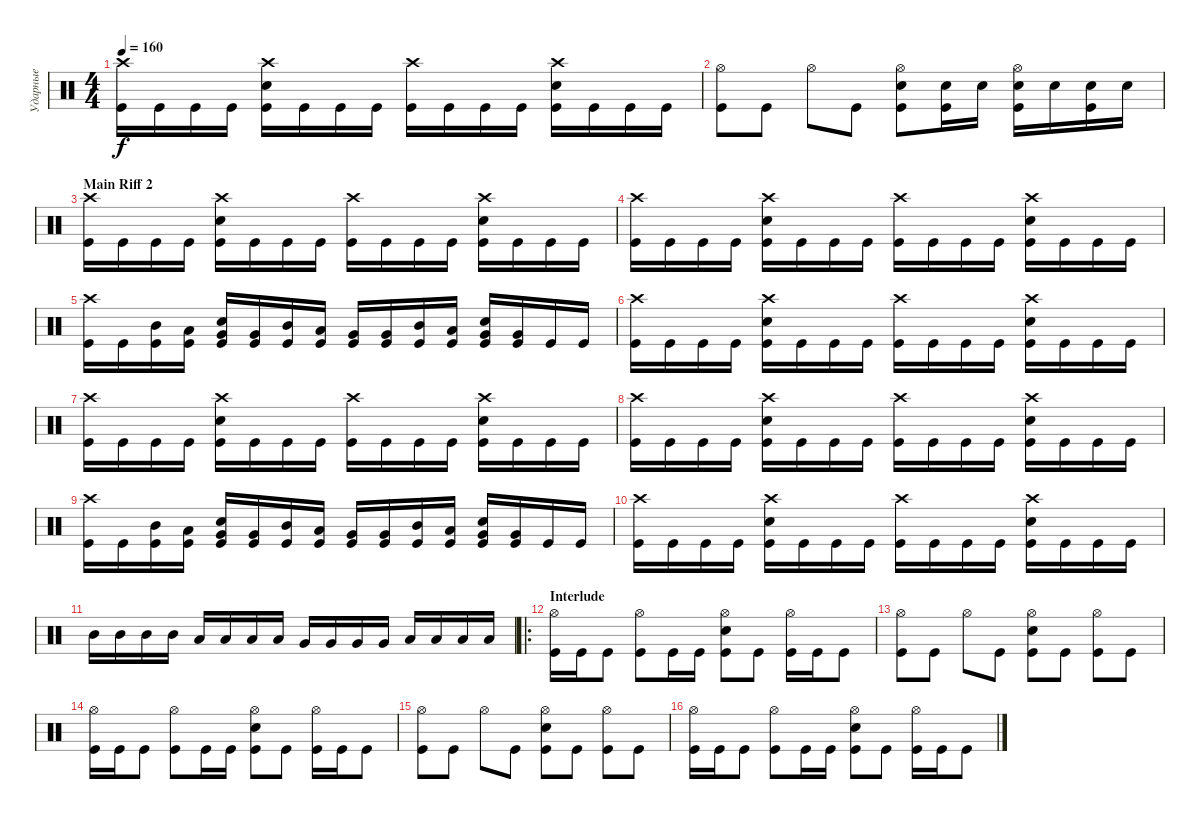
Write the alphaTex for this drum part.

\track ("Ударные" "Ударные") {instrument percussion}
\staff {score}
\articulation defaults
\ts (4 4)
\tempo 160
\clef neutral
\ks c
("Crash high (hit)" "Kick (hit)").16{dy f} "Kick (hit)".16 "Kick (hit)".16 "Kick (hit)".16 ("Crash high (hit)" "Snare (hit) 2" "Kick (hit)").16 "Kick (hit)".16 "Kick (hit)".16 "Kick (hit)".16 ("Crash high (hit)" "Kick (hit)").16 "Kick (hit)".16 "Kick (hit)".16 "Kick (hit)".16 ("Crash high (hit)" "Snare (hit) 2" "Kick (hit)").16 "Kick (hit)".16 "Kick (hit)".16 "Kick (hit)".16 |
("Hi-Hat (open)" "Kick (hit)").8 "Kick (hit)".8 "Hi-Hat (open)".8 "Kick (hit)".8 ("Hi-Hat (open)" "Snare (hit) 2" "Kick (hit)").8 ("Snare (hit) 2" "Kick (hit)").16 "Snare (hit) 2".16 ("Hi-Hat (open)" "Snare (hit) 2" "Kick (hit)").16 "Snare (hit) 2".16 ("Snare (hit) 2" "Kick (hit)").16 "Snare (hit) 2".16 |
\section ("" "Main Riff 2")
("Crash high (hit)" "Kick (hit)").16 "Kick (hit)".16 "Kick (hit)".16 "Kick (hit)".16 ("Crash high (hit)" "Snare (hit) 2" "Kick (hit)").16 "Kick (hit)".16 "Kick (hit)".16 "Kick (hit)".16 ("Crash high (hit)" "Kick (hit)").16 "Kick (hit)".16 "Kick (hit)".16 "Kick (hit)".16 ("Crash high (hit)" "Snare (hit) 2" "Kick (hit)").16 "Kick (hit)".16 "Kick (hit)".16 "Kick (hit)".16 |
("Crash high (hit)" "Kick (hit)").16 "Kick (hit)".16 "Kick (hit)".16 "Kick (hit)".16 ("Crash high (hit)" "Snare (hit) 2" "Kick (hit)").16 "Kick (hit)".16 "Kick (hit)".16 "Kick (hit)".16 ("Crash high (hit)" "Kick (hit)").16 "Kick (hit)".16 "Kick (hit)".16 "Kick (hit)".16 ("Crash high (hit)" "Snare (hit) 2" "Kick (hit)").16 "Kick (hit)".16 "Kick (hit)".16 "Kick (hit)".16 |
("Crash high (hit)" "Kick (hit)").16 "Kick (hit)".16 ("Mid Tom (hit)" "Kick (hit)").16 ("Low Tom (hit)" "Kick (hit)").16 ("Very Low Tom (hit)" "Snare (hit) 2" "Kick (hit)").16 ("Very Low Tom (hit)" "Kick (hit)").16 ("Mid Tom (hit)" "Kick (hit)").16 ("Low Tom (hit)" "Kick (hit)").16 ("Very Low Tom (hit)" "Kick (hit)").16 ("Very Low Tom (hit)" "Kick (hit)").16 ("Mid Tom (hit)" "Kick (hit)").16 ("Low Tom (hit)" "Kick (hit)").16 ("Very Low Tom (hit)" "Snare (hit) 2" "Kick (hit)").16 ("Very Low Tom (hit)" "Kick (hit)").16 "Kick (hit)".16 "Kick (hit)".16 |
("Crash high (hit)" "Kick (hit)").16 "Kick (hit)".16 "Kick (hit)".16 "Kick (hit)".16 ("Crash high (hit)" "Snare (hit) 2" "Kick (hit)").16 "Kick (hit)".16 "Kick (hit)".16 "Kick (hit)".16 ("Crash high (hit)" "Kick (hit)").16 "Kick (hit)".16 "Kick (hit)".16 "Kick (hit)".16 ("Crash high (hit)" "Snare (hit) 2" "Kick (hit)").16 "Kick (hit)".16 "Kick (hit)".16 "Kick (hit)".16 |
("Crash high (hit)" "Kick (hit)").16 "Kick (hit)".16 "Kick (hit)".16 "Kick (hit)".16 ("Crash high (hit)" "Snare (hit) 2" "Kick (hit)").16 "Kick (hit)".16 "Kick (hit)".16 "Kick (hit)".16 ("Crash high (hit)" "Kick (hit)").16 "Kick (hit)".16 "Kick (hit)".16 "Kick (hit)".16 ("Crash high (hit)" "Snare (hit) 2" "Kick (hit)").16 "Kick (hit)".16 "Kick (hit)".16 "Kick (hit)".16 |
("Crash high (hit)" "Kick (hit)").16 "Kick (hit)".16 "Kick (hit)".16 "Kick (hit)".16 ("Crash high (hit)" "Snare (hit) 2" "Kick (hit)").16 "Kick (hit)".16 "Kick (hit)".16 "Kick (hit)".16 ("Crash high (hit)" "Kick (hit)").16 "Kick (hit)".16 "Kick (hit)".16 "Kick (hit)".16 ("Crash high (hit)" "Snare (hit) 2" "Kick (hit)").16 "Kick (hit)".16 "Kick (hit)".16 "Kick (hit)".16 |
("Crash high (hit)" "Kick (hit)").16 "Kick (hit)".16 ("Mid Tom (hit)" "Kick (hit)").16 ("Low Tom (hit)" "Kick (hit)").16 ("Very Low Tom (hit)" "Snare (hit) 2" "Kick (hit)").16 ("Very Low Tom (hit)" "Kick (hit)").16 ("Mid Tom (hit)" "Kick (hit)").16 ("Low Tom (hit)" "Kick (hit)").16 ("Very Low Tom (hit)" "Kick (hit)").16 ("Very Low Tom (hit)" "Kick (hit)").16 ("Mid Tom (hit)" "Kick (hit)").16 ("Low Tom (hit)" "Kick (hit)").16 ("Very Low Tom (hit)" "Snare (hit) 2" "Kick (hit)").16 ("Very Low Tom (hit)" "Kick (hit)").16 "Kick (hit)".16 "Kick (hit)".16 |
("Crash high (hit)" "Kick (hit)").16 "Kick (hit)".16 "Kick (hit)".16 "Kick (hit)".16 ("Crash high (hit)" "Snare (hit) 2" "Kick (hit)").16 "Kick (hit)".16 "Kick (hit)".16 "Kick (hit)".16 ("Crash high (hit)" "Kick (hit)").16 "Kick (hit)".16 "Kick (hit)".16 "Kick (hit)".16 ("Crash high (hit)" "Snare (hit) 2" "Kick (hit)").16 "Kick (hit)".16 "Kick (hit)".16 "Kick (hit)".16 |
"Mid Tom (hit)".16 "Mid Tom (hit)".16 "Mid Tom (hit)".16 "Mid Tom (hit)".16 "Low Tom (hit)".16 "Low Tom (hit)".16 "Low Tom (hit)".16 "Low Tom (hit)".16 "Very Low Tom (hit)".16 "Very Low Tom (hit)".16 "Very Low Tom (hit)".16 "Very Low Tom (hit)".16 "Low Floor Tom (hit)".16 "Low Floor Tom (hit)".16 "Low Floor Tom (hit)".16 "Low Floor Tom (hit)".16 |
\ro
\section ("" "Interlude")
("Hi-Hat (open)" "Kick (hit)").16 "Kick (hit)".16 "Kick (hit)".8 ("Hi-Hat (open)" "Kick (hit)").8 "Kick (hit)".16 "Kick (hit)".16 ("Hi-Hat (open)" "Snare (hit) 2" "Kick (hit)").8 "Kick (hit)".8 ("Hi-Hat (open)" "Kick (hit)").16 "Kick (hit)".16 "Kick (hit)".8 |
("Hi-Hat (open)" "Kick (hit)").8 "Kick (hit)".8 "Hi-Hat (open)".8 "Kick (hit)".8 ("Hi-Hat (open)" "Snare (hit) 2" "Kick (hit)").8 "Kick (hit)".8 ("Hi-Hat (open)" "Kick (hit)").8 "Kick (hit)".8 |
("Hi-Hat (open)" "Kick (hit)").16 "Kick (hit)".16 "Kick (hit)".8 ("Hi-Hat (open)" "Kick (hit)").8 "Kick (hit)".16 "Kick (hit)".16 ("Hi-Hat (open)" "Snare (hit) 2" "Kick (hit)").8 "Kick (hit)".8 ("Hi-Hat (open)" "Kick (hit)").16 "Kick (hit)".16 "Kick (hit)".8 |
("Hi-Hat (open)" "Kick (hit)").8 "Kick (hit)".8 "Hi-Hat (open)".8 "Kick (hit)".8 ("Hi-Hat (open)" "Snare (hit) 2" "Kick (hit)").8 "Kick (hit)".8 ("Hi-Hat (open)" "Kick (hit)").8 "Kick (hit)".8 |
("Hi-Hat (open)" "Kick (hit)").16 "Kick (hit)".16 "Kick (hit)".8 ("Hi-Hat (open)" "Kick (hit)").8 "Kick (hit)".16 "Kick (hit)".16 ("Hi-Hat (open)" "Snare (hit) 2" "Kick (hit)").8 "Kick (hit)".8 ("Hi-Hat (open)" "Kick (hit)").16 "Kick (hit)".16 "Kick (hit)".8
